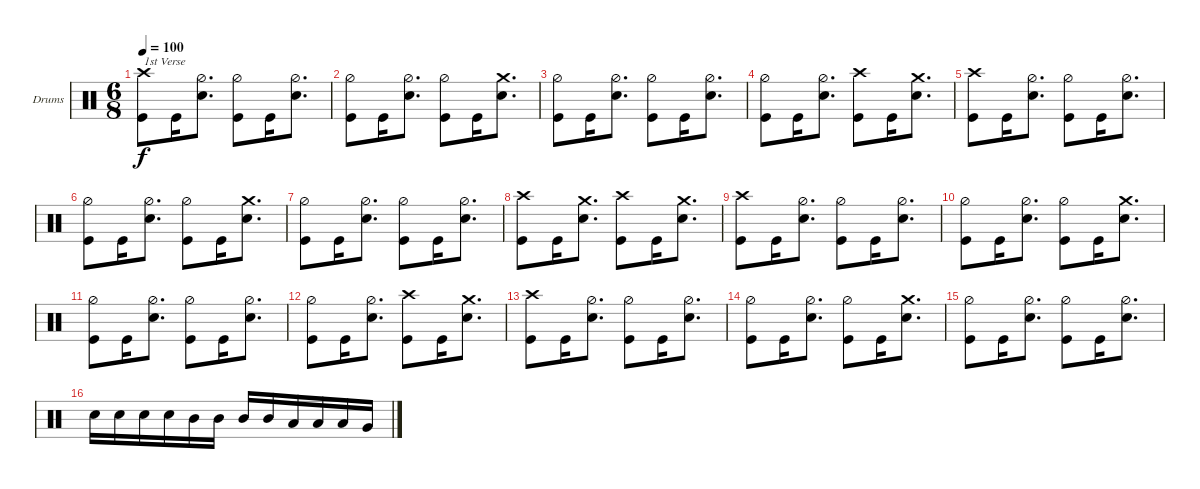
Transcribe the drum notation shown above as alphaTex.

\defaultSystemsLayout 4
\bracketExtendMode groupsimilarinstruments
\firstSystemTrackNameOrientation horizontal
\otherSystemsTrackNameOrientation horizontal
\track ("Stefan Schwarzmann" "Drums") {instrument percussion}
\staff {score}
\articulation defaults
\ts (6 8)
\tempo 100
\clef neutral
\scale
0.472222
\ks c
("Kick (hit)" "Crash high (hit)").8{txt "1st Verse " dy f} "Kick (hit)".16 ("Snare (hit) 2" "Hi-Hat (half)").8{d} ("Kick (hit)" "Hi-Hat (half)").8 "Kick (hit)".16 ("Snare (hit) 2" "Hi-Hat (half)").8{d} |
("Kick (hit)" "Hi-Hat (half)").8 "Kick (hit)".16 ("Snare (hit) 2" "Hi-Hat (half)").8{d} ("Kick (hit)" "Hi-Hat (half)").8 "Kick (hit)".16 ("Snare (hit) 2" "Crash medium (hit)").8{d} |
("Kick (hit)" "Hi-Hat (half)").8 "Kick (hit)".16 ("Snare (hit) 2" "Hi-Hat (half)").8{d} ("Kick (hit)" "Hi-Hat (half)").8 "Kick (hit)".16 ("Snare (hit) 2" "Hi-Hat (half)").8{d} |
("Kick (hit)" "Hi-Hat (half)").8 "Kick (hit)".16 ("Snare (hit) 2" "Hi-Hat (half)").8{d} ("Kick (hit)" "Crash high (hit)").8 "Kick (hit)".16 ("Snare (hit) 2" "Crash medium (hit)").8{d} |
("Kick (hit)" "Crash high (hit)").8 "Kick (hit)".16 ("Snare (hit) 2" "Hi-Hat (half)").8{d} ("Kick (hit)" "Hi-Hat (half)").8 "Kick (hit)".16 ("Snare (hit) 2" "Hi-Hat (half)").8{d} |
("Kick (hit)" "Hi-Hat (half)").8 "Kick (hit)".16 ("Snare (hit) 2" "Hi-Hat (half)").8{d} ("Kick (hit)" "Hi-Hat (half)").8 "Kick (hit)".16 ("Snare (hit) 2" "Crash medium (hit)").8{d} |
("Kick (hit)" "Hi-Hat (half)").8 "Kick (hit)".16 ("Snare (hit) 2" "Hi-Hat (half)").8{d} ("Kick (hit)" "Hi-Hat (half)").8 "Kick (hit)".16 ("Snare (hit) 2" "Hi-Hat (half)").8{d} |
("Kick (hit)" "Crash high (hit)").8 "Kick (hit)".16 ("Snare (hit) 2" "Crash medium (hit)").8{d} ("Kick (hit)" "Crash high (hit)").8 "Kick (hit)".16 ("Snare (hit) 2" "Crash medium (hit)").8{d} |
("Kick (hit)" "Crash high (hit)").8 "Kick (hit)".16 ("Snare (hit) 2" "Hi-Hat (half)").8{d} ("Kick (hit)" "Hi-Hat (half)").8 "Kick (hit)".16 ("Snare (hit) 2" "Hi-Hat (half)").8{d} |
("Kick (hit)" "Hi-Hat (half)").8 "Kick (hit)".16 ("Snare (hit) 2" "Hi-Hat (half)").8{d} ("Kick (hit)" "Hi-Hat (half)").8 "Kick (hit)".16 ("Snare (hit) 2" "Crash medium (hit)").8{d} |
("Kick (hit)" "Hi-Hat (half)").8 "Kick (hit)".16 ("Snare (hit) 2" "Hi-Hat (half)").8{d} ("Kick (hit)" "Hi-Hat (half)").8 "Kick (hit)".16 ("Snare (hit) 2" "Hi-Hat (half)").8{d} |
("Kick (hit)" "Hi-Hat (half)").8 "Kick (hit)".16 ("Snare (hit) 2" "Hi-Hat (half)").8{d} ("Kick (hit)" "Crash high (hit)").8 "Kick (hit)".16 ("Snare (hit) 2" "Crash medium (hit)").8{d} |
("Kick (hit)" "Crash high (hit)").8 "Kick (hit)".16 ("Snare (hit) 2" "Hi-Hat (half)").8{d} ("Kick (hit)" "Hi-Hat (half)").8 "Kick (hit)".16 ("Snare (hit) 2" "Hi-Hat (half)").8{d} |
("Kick (hit)" "Hi-Hat (half)").8 "Kick (hit)".16 ("Snare (hit) 2" "Hi-Hat (half)").8{d} ("Kick (hit)" "Hi-Hat (half)").8 "Kick (hit)".16 ("Snare (hit) 2" "Crash medium (hit)").8{d} |
("Kick (hit)" "Hi-Hat (half)").8 "Kick (hit)".16 ("Snare (hit) 2" "Hi-Hat (half)").8{d} ("Kick (hit)" "Hi-Hat (half)").8 "Kick (hit)".16 ("Snare (hit) 2" "Hi-Hat (half)").8{d} |
"Snare (hit) 2".16 "Snare (hit) 2".16 "Snare (hit) 2".16 "Snare (hit) 2".16 "Mid Tom (hit)".16 "Mid Tom (hit)".16 "Mid Tom (hit)".16 "Mid Tom (hit)".16 "Low Tom (hit)".16 "Low Tom (hit)".16 "Low Tom (hit)".16 "Very Low Tom (hit)".16
